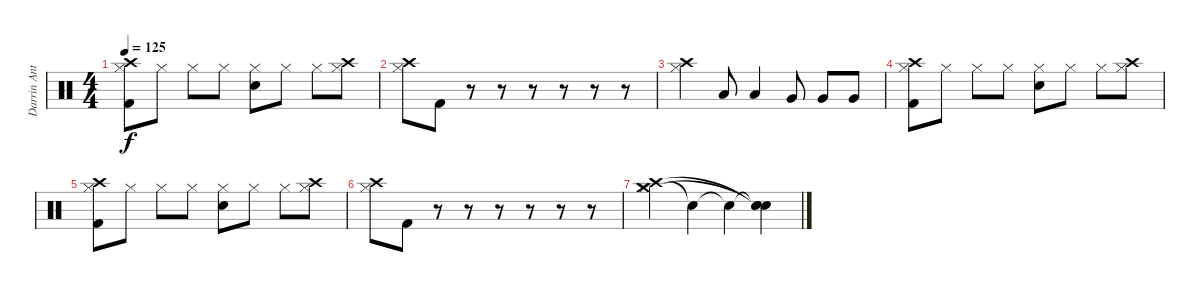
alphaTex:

\track ("Darrin Anthony (Drums)" "Darrin Ant") {instrument percussion}
\staff {score}
\articulation defaults
\ts (4 4)
\tempo 125
\clef neutral
\ks c
("Kick (hit) 2" "Hi-Hat (closed)" "Crash high (hit)").8{dy f} "Hi-Hat (closed)".8 "Hi-Hat (closed)".8 "Hi-Hat (closed)".8 ("Electric Snare (hit)" "Hi-Hat (closed)").8 "Hi-Hat (closed)".8 "Hi-Hat (closed)".8 ("Hi-Hat (closed)" "Crash high (hit)").8 |
("Hi-Hat (closed)" "Crash high (hit)").8 "Kick (hit) 2".8 r.8 r.8 r.8 r.8 r.8 r.8 |
("Hi-Hat (closed)" "Crash high (hit)").4 "Low Tom (hit)".8 "Low Tom (hit)".4 "Very Low Tom (hit)".8 "Very Low Tom (hit)".8 "Very Low Tom (hit)".8 |
("Kick (hit) 2" "Hi-Hat (closed)" "Crash high (hit)").8 "Hi-Hat (closed)".8 "Hi-Hat (closed)".8 "Hi-Hat (closed)".8 ("Electric Snare (hit)" "Hi-Hat (closed)").8 "Hi-Hat (closed)".8 "Hi-Hat (closed)".8 ("Hi-Hat (closed)" "Crash high (hit)").8 |
("Kick (hit) 2" "Hi-Hat (closed)" "Crash high (hit)").8 "Hi-Hat (closed)".8 "Hi-Hat (closed)".8 "Hi-Hat (closed)".8 ("Electric Snare (hit)" "Hi-Hat (closed)").8 "Hi-Hat (closed)".8 "Hi-Hat (closed)".8 ("Hi-Hat (closed)" "Crash high (hit)").8 |
("Hi-Hat (closed)" "Crash high (hit)").8 "Kick (hit) 2".8 r.8 r.8 r.8 r.8 r.8 r.8 |
("Crash medium (hit)" "Hi-Hat (closed)" "Crash high (hit)").4 "Snare (hit)"{t}.4 "Snare (hit)"{t}.4 ("Snare (hit)"{t} "Snare (hit)"{t} "Snare (hit)"{t}).4
